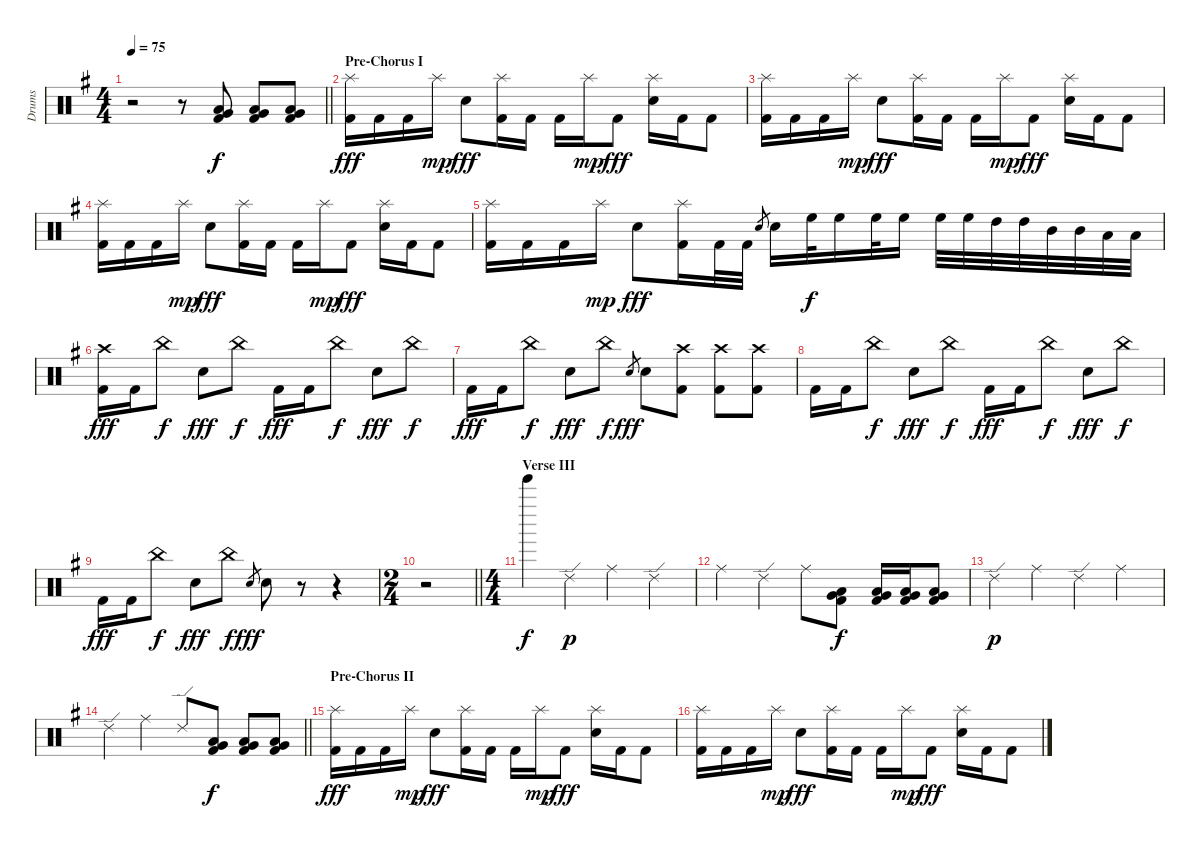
\track ("Drums" "Drums") {instrument percussion}
\staff {score}
\articulation defaults
\ts (4 4)
\tempo 75
\clef neutral
\barLineRight lightlight
\ks eminor
r.2{dy f} r.8 ("Low Tom (hit)" "Very Low Tom (hit)" "Kick (hit) 2").8 ("Low Tom (hit)" "Very Low Tom (hit)" "Kick (hit) 2").8 ("Low Tom (hit)" "Very Low Tom (hit)" "Kick (hit) 2").8 |
\section ("" "Pre-Chorus I")
("Splash (hit)" "Kick (hit) 2").16{dy fff} "Kick (hit) 2".16 "Kick (hit) 2".16 "Splash (hit)".16{dy mp} "Snare (hit) 2".8{dy fff} ("Splash (hit)" "Kick (hit) 2").16 "Kick (hit) 2".16 "Kick (hit) 2".16 "Splash (hit)".16{dy mp} "Kick (hit) 2".8{dy fff} ("Splash (hit)" "Snare (hit) 2").16 "Kick (hit) 2".16 "Kick (hit) 2".8 |
("Splash (hit)" "Kick (hit) 2").16 "Kick (hit) 2".16 "Kick (hit) 2".16 "Splash (hit)".16{dy mp} "Snare (hit) 2".8{dy fff} ("Splash (hit)" "Kick (hit) 2").16 "Kick (hit) 2".16 "Kick (hit) 2".16 "Splash (hit)".16{dy mp} "Kick (hit) 2".8{dy fff} ("Splash (hit)" "Snare (hit) 2").16 "Kick (hit) 2".16 "Kick (hit) 2".8 |
("Splash (hit)" "Kick (hit) 2").16 "Kick (hit) 2".16 "Kick (hit) 2".16 "Splash (hit)".16{dy mp} "Snare (hit) 2".8{dy fff} ("Splash (hit)" "Kick (hit) 2").16 "Kick (hit) 2".16 "Kick (hit) 2".16 "Splash (hit)".16{dy mp} "Kick (hit) 2".8{dy fff} ("Splash (hit)" "Snare (hit) 2").16 "Kick (hit) 2".16 "Kick (hit) 2".8 |
("Splash (hit)" "Kick (hit) 2").16 "Kick (hit) 2".16 "Kick (hit) 2".16 "Splash (hit)".16{dy mp} "Snare (hit) 2".8{dy fff} ("Splash (hit)" "Kick (hit) 2").16 "Kick (hit) 2".32 "Kick (hit) 2".32 "Snare (hit) 2".8{gr} "Snare (hit) 2".16 "High Floor Tom (hit)".32{dy f} "High Floor Tom (hit)".16 "High Floor Tom (hit)".32 "High Floor Tom (hit)".16 "High Floor Tom (hit)".32 "High Floor Tom (hit)".32 "High Tom (hit)".32 "High Tom (hit)".32 "Mid Tom (hit)".32 "Mid Tom (hit)".32 "Low Tom (hit)".32 "Low Tom (hit)".32 |
("Crash high (hit)" "Kick (hit) 2").16{dy fff} "Kick (hit) 2".16 "China (hit)".8{dy f} "Snare (hit) 2".8{dy fff} "China (hit)".8{dy f} "Kick (hit) 2".16{dy fff} "Kick (hit) 2".16 "China (hit)".8{dy f} "Snare (hit) 2".8{dy fff} "China (hit)".8{dy f} |
"Kick (hit) 2".16{dy fff} "Kick (hit) 2".16 "China (hit)".8{dy f} "Snare (hit) 2".8{dy fff} "China (hit)".8{dy f} "Snare (hit) 2".8{gr dy fff} "Snare (hit) 2".8 ("Crash high (hit)" "Kick (hit) 2").8 ("Crash high (hit)" "Kick (hit) 2").8 ("Crash high (hit)" "Kick (hit) 2").8 |
"Kick (hit) 2".16 "Kick (hit) 2".16 "China (hit)".8{dy f} "Snare (hit) 2".8{dy fff} "China (hit)".8{dy f} "Kick (hit) 2".16{dy fff} "Kick (hit) 2".16 "China (hit)".8{dy f} "Snare (hit) 2".8{dy fff} "China (hit)".8{dy f} |
"Kick (hit) 2".16{dy fff} "Kick (hit) 2".16 "China (hit)".8{dy f} "Snare (hit) 2".8{dy fff} "China (hit)".8{dy f} "Snare (hit) 2".8{gr dy fff} "Snare (hit) 2".8 r.8 r.4 |
\ts (2 4)
\barLineRight lightlight
r.2 |
\ts (4 4)
\section ("" "Verse III")
"Tinkle Bell (hit)".4{dy f} "Ride (edge) 2".4{dy p} "Ride (middle)".4 "Ride (edge) 2".4 |
"Ride (middle)".4 "Ride (edge) 2".4 "Ride (middle)".8 ("Low Tom (hit)" "Very Low Tom (hit)" "Kick (hit) 2").8{dy f} ("Low Tom (hit)" "Very Low Tom (hit)" "Kick (hit) 2").16 ("Low Tom (hit)" "Very Low Tom (hit)" "Kick (hit) 2").16 ("Low Tom (hit)" "Very Low Tom (hit)" "Kick (hit) 2").8 |
"Ride (edge) 2".4{dy p} "Ride (middle)".4 "Ride (edge) 2".4 "Ride (middle)".4 |
\barLineRight lightlight "Ride (edge) 2".4 "Ride (middle)".4 "Ride (edge) 2".8
("Low Tom (hit)" "Very Low Tom (hit)" "Kick (hit) 2").8{dy f} ("Low Tom (hit)" "Very Low Tom (hit)" "Kick (hit) 2").8 ("Low Tom (hit)" "Very Low Tom (hit)" "Kick (hit) 2").8 |
\section ("" "Pre-Chorus II")
("Splash (hit)" "Kick (hit) 2").16{dy fff} "Kick (hit) 2".16 "Kick (hit) 2".16 "Splash (hit)".16{dy mp} "Snare (hit) 2".8{dy fff} ("Splash (hit)" "Kick (hit) 2").16 "Kick (hit) 2".16 "Kick (hit) 2".16 "Splash (hit)".16{dy mp} "Kick (hit) 2".8{dy fff} ("Splash (hit)" "Snare (hit) 2").16 "Kick (hit) 2".16 "Kick (hit) 2".8 |
("Splash (hit)" "Kick (hit) 2").16 "Kick (hit) 2".16 "Kick (hit) 2".16 "Splash (hit)".16{dy mp} "Snare (hit) 2".8{dy fff} ("Splash (hit)" "Kick (hit) 2").16 "Kick (hit) 2".16 "Kick (hit) 2".16 "Splash (hit)".16{dy mp} "Kick (hit) 2".8{dy fff} ("Splash (hit)" "Snare (hit) 2").16 "Kick (hit) 2".16 "Kick (hit) 2".8
